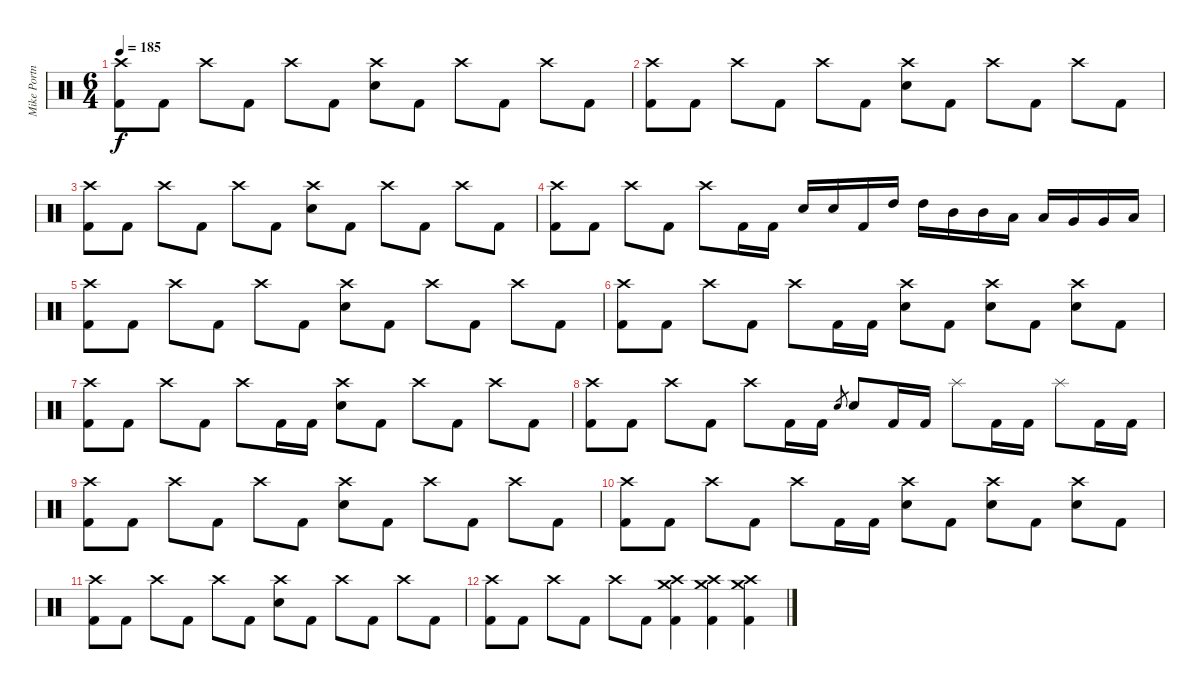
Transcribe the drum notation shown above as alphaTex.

\track ("Mike Portnoy" "Mike Portn") {instrument percussion}
\staff {score}
\articulation defaults
\ts (6 4)
\tempo 185
\clef neutral
\ks c
("Crash high (hit)" "Kick (hit) 2").8{dy f} "Kick (hit) 2".8 "Crash high (hit)".8 "Kick (hit) 2".8 "Crash high (hit)".8 "Kick (hit) 2".8 ("Snare (hit) 2" "Crash high (hit)").8 "Kick (hit) 2".8 "Crash high (hit)".8 "Kick (hit) 2".8 "Crash high (hit)".8 "Kick (hit) 2".8 |
("Crash high (hit)" "Kick (hit) 2").8 "Kick (hit) 2".8 "Crash high (hit)".8 "Kick (hit) 2".8 "Crash high (hit)".8 "Kick (hit) 2".8 ("Snare (hit) 2" "Crash high (hit)").8 "Kick (hit) 2".8 "Crash high (hit)".8 "Kick (hit) 2".8 "Crash high (hit)".8 "Kick (hit) 2".8 |
("Crash high (hit)" "Kick (hit) 2").8 "Kick (hit) 2".8 "Crash high (hit)".8 "Kick (hit) 2".8 "Crash high (hit)".8 "Kick (hit) 2".8 ("Snare (hit) 2" "Crash high (hit)").8 "Kick (hit) 2".8 "Crash high (hit)".8 "Kick (hit) 2".8 "Crash high (hit)".8 "Kick (hit) 2".8 |
("Crash high (hit)" "Kick (hit) 2").8 "Kick (hit) 2".8 "Crash high (hit)".8 "Kick (hit) 2".8 "Crash high (hit)".8 "Kick (hit) 2".16 "Kick (hit) 2".16 "Snare (hit) 2".16 "Snare (hit) 2".16 "Kick (hit) 2".16 "High Tom (hit)".16 "High Tom (hit)".16 "Mid Tom (hit)".16 "Mid Tom (hit)".16 "Low Tom (hit)".16 "Low Tom (hit)".16 "Very Low Tom (hit)".16 "Very Low Tom (hit)".16 "Low Floor Tom (hit)".16 |
("Crash high (hit)" "Kick (hit) 2").8 "Kick (hit) 2".8 "Crash high (hit)".8 "Kick (hit) 2".8 "Crash high (hit)".8 "Kick (hit) 2".8 ("Snare (hit) 2" "Crash high (hit)").8 "Kick (hit) 2".8 "Crash high (hit)".8 "Kick (hit) 2".8 "Crash high (hit)".8 "Kick (hit) 2".8 |
("Crash high (hit)" "Kick (hit) 2").8 "Kick (hit) 2".8 "Crash high (hit)".8 "Kick (hit) 2".8 "Crash high (hit)".8 "Kick (hit) 2".16 "Kick (hit) 2".16 ("Snare (hit) 2" "Crash high (hit)").8 "Kick (hit) 2".8 ("Snare (hit) 2" "Crash high (hit)").8 "Kick (hit) 2".8 ("Snare (hit) 2" "Crash high (hit)").8 "Kick (hit) 2".8 |
("Crash high (hit)" "Kick (hit) 2").8 "Kick (hit) 2".8 "Crash high (hit)".8 "Kick (hit) 2".8 "Crash high (hit)".8 "Kick (hit) 2".16 "Kick (hit) 2".16 ("Snare (hit) 2" "Crash high (hit)").8 "Kick (hit) 2".8 "Crash high (hit)".8 "Kick (hit) 2".8 "Crash high (hit)".8 "Kick (hit) 2".8 |
("Crash high (hit)" "Kick (hit) 2").8 "Kick (hit) 2".8 "Crash high (hit)".8 "Kick (hit) 2".8 "Crash high (hit)".8 "Kick (hit) 2".16 "Kick (hit) 2".16 "Snare (hit) 2".8{gr} "Snare (hit) 2".8 "Kick (hit) 2".16 "Kick (hit) 2".16 "Splash (hit)".8 "Kick (hit) 2".16 "Kick (hit) 2".16 "Splash (hit)".8 "Kick (hit) 2".16 "Kick (hit) 2".16 |
("Crash high (hit)" "Kick (hit) 2").8 "Kick (hit) 2".8 "Crash high (hit)".8 "Kick (hit) 2".8 "Crash high (hit)".8 "Kick (hit) 2".8 ("Snare (hit) 2" "Crash high (hit)").8 "Kick (hit) 2".8 "Crash high (hit)".8 "Kick (hit) 2".8 "Crash high (hit)".8 "Kick (hit) 2".8 |
("Crash high (hit)" "Kick (hit) 2").8 "Kick (hit) 2".8 "Crash high (hit)".8 "Kick (hit) 2".8 "Crash high (hit)".8 "Kick (hit) 2".16 "Kick (hit) 2".16 ("Snare (hit) 2" "Crash high (hit)").8 "Kick (hit) 2".8 ("Snare (hit) 2" "Crash high (hit)").8 "Kick (hit) 2".8 ("Snare (hit) 2" "Crash high (hit)").8 "Kick (hit) 2".8 |
("Crash high (hit)" "Kick (hit) 2").8 "Kick (hit) 2".8 "Crash high (hit)".8 "Kick (hit) 2".8 "Crash high (hit)".8 "Kick (hit) 2".8 ("Snare (hit) 2" "Crash high (hit)").8 "Kick (hit) 2".8 "Crash high (hit)".8 "Kick (hit) 2".8 "Crash high (hit)".8 "Kick (hit) 2".8 |
("Crash high (hit)" "Kick (hit) 2").8 "Kick (hit) 2".8 "Crash high (hit)".8 "Kick (hit) 2".8 "Crash high (hit)".8 "Kick (hit) 2".8 ("Crash medium (hit)" "Crash high (hit)" "Kick (hit) 2").4 ("Crash medium (hit)" "Crash high (hit)" "Kick (hit) 2").4 ("Crash medium (hit)" "Crash high (hit)" "Kick (hit) 2").4
